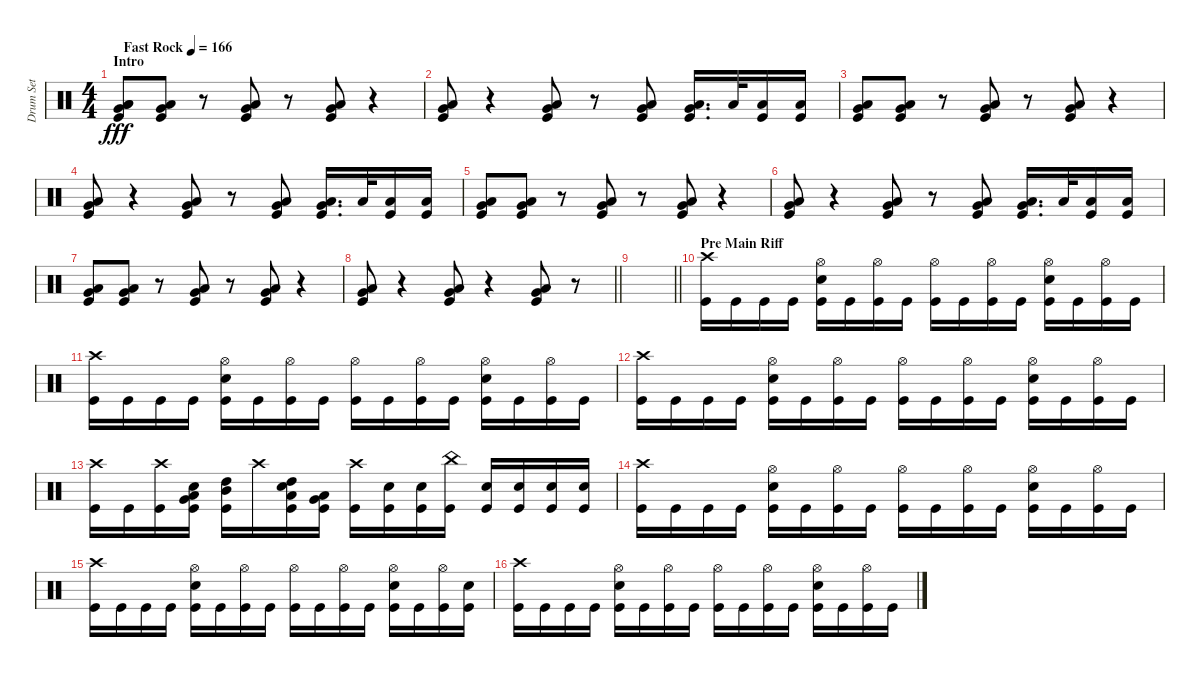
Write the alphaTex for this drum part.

\track ("Drum Set" "Drum Set") {instrument percussion}
\staff {score}
\articulation defaults
\ts (4 4)
\section ("" "Intro")
\tempo (166 "Fast Rock")
\clef neutral
\ks c
("Low Floor Tom (hit)" "Kick (hit)" "Low Floor Tom (hit)" "Very Low Tom (hit)").8{dy fff} ("Kick (hit)" "Low Floor Tom (hit)" "Very Low Tom (hit)").8 r.8 ("Kick (hit)" "Low Floor Tom (hit)" "Very Low Tom (hit)").8 r.8 ("Kick (hit)" "Low Floor Tom (hit)" "Very Low Tom (hit)").8 r.4 |
("Kick (hit)" "Low Floor Tom (hit)" "Very Low Tom (hit)").8 r.4 ("Kick (hit)" "Low Floor Tom (hit)" "Very Low Tom (hit)").8 r.8 ("Kick (hit)" "Low Floor Tom (hit)" "Very Low Tom (hit)").8 ("Kick (hit)" "Low Floor Tom (hit)" "Very Low Tom (hit)").16{d} "Low Floor Tom (hit)".32 ("Kick (hit)" "Low Floor Tom (hit)").16 ("Kick (hit)" "Low Floor Tom (hit)").16 |
("Kick (hit)" "Low Floor Tom (hit)" "Very Low Tom (hit)").8 ("Kick (hit)" "Low Floor Tom (hit)" "Very Low Tom (hit)").8 r.8 ("Kick (hit)" "Low Floor Tom (hit)" "Very Low Tom (hit)").8 r.8 ("Kick (hit)" "Low Floor Tom (hit)" "Very Low Tom (hit)").8 r.4 |
("Kick (hit)" "Low Floor Tom (hit)" "Very Low Tom (hit)").8 r.4 ("Kick (hit)" "Low Floor Tom (hit)" "Very Low Tom (hit)").8 r.8 ("Kick (hit)" "Low Floor Tom (hit)" "Very Low Tom (hit)").8 ("Kick (hit)" "Low Floor Tom (hit)" "Very Low Tom (hit)").16{d} "Low Floor Tom (hit)".32 ("Kick (hit)" "Low Floor Tom (hit)").16 ("Kick (hit)" "Low Floor Tom (hit)").16 |
("Kick (hit)" "Low Floor Tom (hit)" "Very Low Tom (hit)").8 ("Kick (hit)" "Low Floor Tom (hit)" "Very Low Tom (hit)").8 r.8 ("Kick (hit)" "Low Floor Tom (hit)" "Very Low Tom (hit)").8 r.8 ("Kick (hit)" "Low Floor Tom (hit)" "Very Low Tom (hit)").8 r.4 |
("Kick (hit)" "Low Floor Tom (hit)" "Very Low Tom (hit)").8 r.4 ("Kick (hit)" "Low Floor Tom (hit)" "Very Low Tom (hit)").8 r.8 ("Kick (hit)" "Low Floor Tom (hit)" "Very Low Tom (hit)").8 ("Kick (hit)" "Low Floor Tom (hit)" "Very Low Tom (hit)").16{d} "Low Floor Tom (hit)".32 ("Kick (hit)" "Low Floor Tom (hit)").16 ("Kick (hit)" "Low Floor Tom (hit)").16 |
("Kick (hit)" "Low Floor Tom (hit)" "Very Low Tom (hit)").8 ("Kick (hit)" "Low Floor Tom (hit)" "Very Low Tom (hit)").8 r.8 ("Kick (hit)" "Low Floor Tom (hit)" "Very Low Tom (hit)").8 r.8 ("Kick (hit)" "Low Floor Tom (hit)" "Very Low Tom (hit)").8 r.4 |
\barLineRight lightlight
("Kick (hit)" "Low Floor Tom (hit)" "Very Low Tom (hit)").8 r.4 ("Kick (hit)" "Low Floor Tom (hit)" "Very Low Tom (hit)").8 r.4 ("Kick (hit)" "Low Floor Tom (hit)" "Very Low Tom (hit)").8 r.8 |
\barLineRight lightlight
|
\section ("" "Pre Main Riff")
("Kick (hit)" "Crash high (hit)").16 "Kick (hit)".16 "Kick (hit)".16 "Kick (hit)".16 ("Electric Snare (hit)" "Kick (hit)" "Hi-Hat (open)").16 "Kick (hit)".16 ("Kick (hit)" "Hi-Hat (open)").16 "Kick (hit)".16 ("Kick (hit)" "Hi-Hat (open)").16 "Kick (hit)".16 ("Kick (hit)" "Hi-Hat (open)").16 "Kick (hit)".16 ("Electric Snare (hit)" "Kick (hit)" "Hi-Hat (open)").16 "Kick (hit)".16 ("Kick (hit)" "Hi-Hat (open)").16 "Kick (hit)".16 |
("Kick (hit)" "Crash high (hit)").16 "Kick (hit)".16 "Kick (hit)".16 "Kick (hit)".16 ("Electric Snare (hit)" "Kick (hit)" "Hi-Hat (open)").16 "Kick (hit)".16 ("Kick (hit)" "Hi-Hat (open)").16 "Kick (hit)".16 ("Kick (hit)" "Hi-Hat (open)").16 "Kick (hit)".16 ("Kick (hit)" "Hi-Hat (open)").16 "Kick (hit)".16 ("Electric Snare (hit)" "Kick (hit)" "Hi-Hat (open)").16 "Kick (hit)".16 ("Kick (hit)" "Hi-Hat (open)").16 "Kick (hit)".16 |
("Kick (hit)" "Crash high (hit)").16 "Kick (hit)".16 "Kick (hit)".16 "Kick (hit)".16 ("Electric Snare (hit)" "Kick (hit)" "Hi-Hat (open)").16 "Kick (hit)".16 ("Kick (hit)" "Hi-Hat (open)").16 "Kick (hit)".16 ("Kick (hit)" "Hi-Hat (open)").16 "Kick (hit)".16 ("Kick (hit)" "Hi-Hat (open)").16 "Kick (hit)".16 ("Electric Snare (hit)" "Kick (hit)" "Hi-Hat (open)").16 "Kick (hit)".16 ("Kick (hit)" "Hi-Hat (open)").16 "Kick (hit)".16 |
("Kick (hit)" "Crash high (hit)").16 "Kick (hit)".16 ("Kick (hit)" "Crash high (hit)").16 ("Electric Snare (hit)" "Kick (hit)" "Very Low Tom (hit)" "Low Tom (hit)").16 ("Kick (hit)" "Mid Tom (hit)" "High Tom (hit)").16 "Crash high (hit)".16 ("Electric Snare (hit)" "Kick (hit)" "Low Tom (hit)" "High Tom (hit)").16 ("Kick (hit)" "Very Low Tom (hit)" "Low Tom (hit)").16 ("Kick (hit)" "Crash high (hit)").16 ("Electric Snare (hit)" "Kick (hit)").16 ("Electric Snare (hit)" "Kick (hit)").16 ("Kick (hit)" "China (hit)").16 ("Electric Snare (hit)" "Kick (hit)").16 ("Electric Snare (hit)" "Kick (hit)").16 ("Electric Snare (hit)" "Kick (hit)").16 ("Electric Snare (hit)" "Kick (hit)").16 |
("Kick (hit)" "Crash high (hit)").16 "Kick (hit)".16 "Kick (hit)".16 "Kick (hit)".16 ("Electric Snare (hit)" "Kick (hit)" "Hi-Hat (open)").16 "Kick (hit)".16 ("Kick (hit)" "Hi-Hat (open)").16 "Kick (hit)".16 ("Kick (hit)" "Hi-Hat (open)").16 "Kick (hit)".16 ("Kick (hit)" "Hi-Hat (open)").16 "Kick (hit)".16 ("Electric Snare (hit)" "Kick (hit)" "Hi-Hat (open)").16 "Kick (hit)".16 ("Kick (hit)" "Hi-Hat (open)").16 "Kick (hit)".16 |
("Kick (hit)" "Crash high (hit)").16 "Kick (hit)".16 "Kick (hit)".16 "Kick (hit)".16 ("Electric Snare (hit)" "Kick (hit)" "Hi-Hat (open)").16 "Kick (hit)".16 ("Kick (hit)" "Hi-Hat (open)").16 "Kick (hit)".16 ("Kick (hit)" "Hi-Hat (open)").16 "Kick (hit)".16 ("Kick (hit)" "Hi-Hat (open)").16 "Kick (hit)".16 ("Electric Snare (hit)" "Kick (hit)" "Hi-Hat (open)").16 "Kick (hit)".16 ("Kick (hit)" "Hi-Hat (open)").16 ("Electric Snare (hit)" "Kick (hit)").16 |
("Kick (hit)" "Crash high (hit)").16 "Kick (hit)".16 "Kick (hit)".16 "Kick (hit)".16 ("Electric Snare (hit)" "Kick (hit)" "Hi-Hat (open)").16 "Kick (hit)".16 ("Kick (hit)" "Hi-Hat (open)").16 "Kick (hit)".16 ("Kick (hit)" "Hi-Hat (open)").16 "Kick (hit)".16 ("Kick (hit)" "Hi-Hat (open)").16 "Kick (hit)".16 ("Electric Snare (hit)" "Kick (hit)" "Hi-Hat (open)").16 "Kick (hit)".16 ("Kick (hit)" "Hi-Hat (open)").16 "Kick (hit)".16
